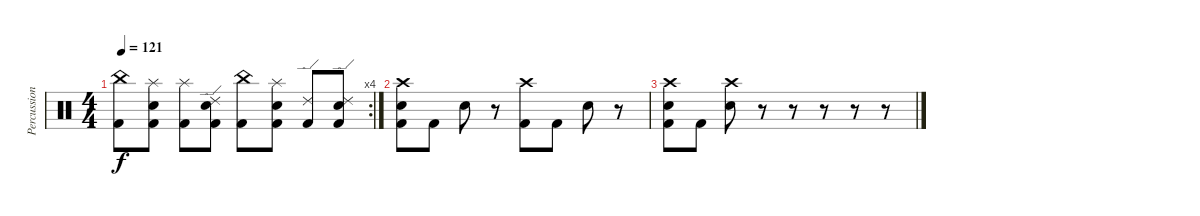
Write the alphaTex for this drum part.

\track ("Percussion" "Percussion") {instrument percussion}
\staff {score}
\articulation defaults
\rc 4
\ts (4 4)
\tempo 121
\clef neutral
\ks c
("China (hit)" "Kick (hit) 2").8{dy f} ("Splash (hit)" "Snare (hit) 2" "Kick (hit) 2").8 ("Splash (hit)" "Kick (hit) 2").8 ("Ride (edge) 2" "Snare (hit) 2" "Kick (hit) 2").8 ("China (hit)" "Kick (hit) 2").8 ("Splash (hit)" "Snare (hit) 2" "Kick (hit) 2").8 ("Ride (edge) 2" "Kick (hit) 2").8 ("Ride (edge) 2" "Snare (hit) 2" "Kick (hit) 2").8 |
("Snare (hit) 2" "Crash high (hit)" "Kick (hit) 2").8 "Kick (hit) 2".8 "Snare (hit) 2".8 r.8 ("Crash high (hit)" "Kick (hit) 2").8 "Kick (hit) 2".8 "Snare (hit) 2".8 r.8 |
("Snare (hit) 2" "Crash high (hit)" "Kick (hit) 2").8 "Kick (hit) 2".8 ("Crash high (hit)" "Snare (hit) 2").8 r.8 r.8 r.8 r.8 r.8
